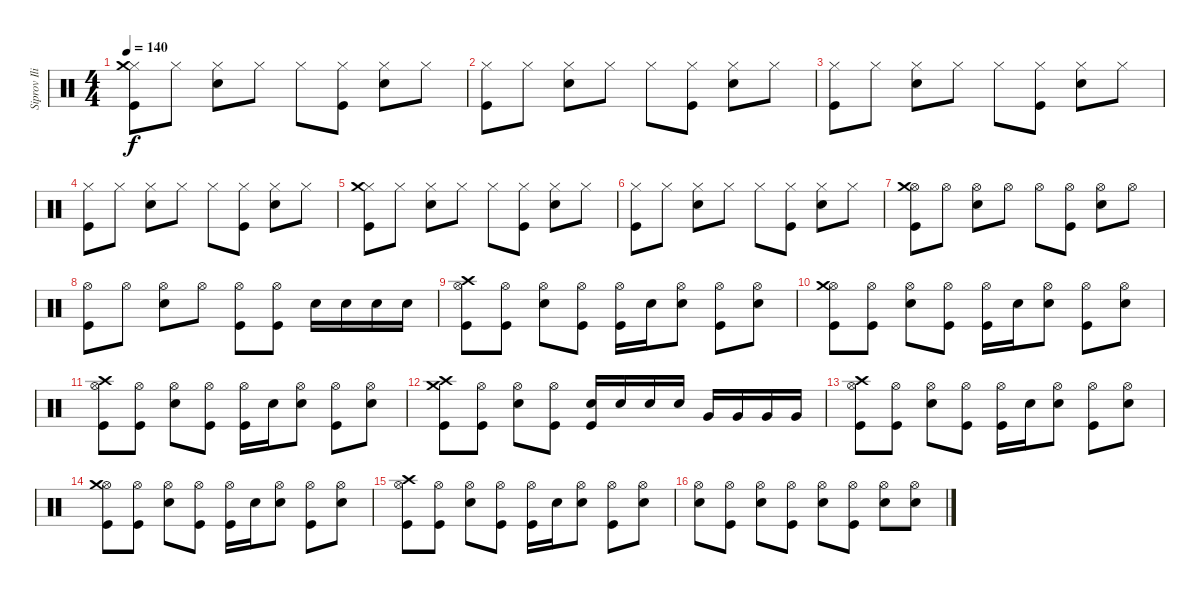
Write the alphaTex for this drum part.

\track ("Siprov Iliya (DRUMS)" "Siprov Ili") {instrument percussion}
\staff {score}
\articulation defaults
\ts (4 4)
\tempo 140
\clef neutral
\ks c
("Hi-Hat (closed)" "Crash medium (hit)" "Kick (hit)").8{dy f} "Hi-Hat (closed)".8 ("Hi-Hat (closed)" "Electric Snare (hit)").8 "Hi-Hat (closed)".8 "Hi-Hat (closed)".8 ("Hi-Hat (closed)" "Kick (hit)").8 ("Hi-Hat (closed)" "Electric Snare (hit)").8 "Hi-Hat (closed)".8 |
("Hi-Hat (closed)" "Kick (hit)").8 "Hi-Hat (closed)".8 ("Hi-Hat (closed)" "Electric Snare (hit)").8 "Hi-Hat (closed)".8 "Hi-Hat (closed)".8 ("Hi-Hat (closed)" "Kick (hit)").8 ("Hi-Hat (closed)" "Electric Snare (hit)").8 "Hi-Hat (closed)".8 |
("Hi-Hat (closed)" "Kick (hit)").8 "Hi-Hat (closed)".8 ("Hi-Hat (closed)" "Electric Snare (hit)").8 "Hi-Hat (closed)".8 "Hi-Hat (closed)".8 ("Hi-Hat (closed)" "Kick (hit)").8 ("Hi-Hat (closed)" "Electric Snare (hit)").8 "Hi-Hat (closed)".8 |
("Hi-Hat (closed)" "Kick (hit)").8 "Hi-Hat (closed)".8 ("Hi-Hat (closed)" "Electric Snare (hit)").8 "Hi-Hat (closed)".8 "Hi-Hat (closed)".8 ("Hi-Hat (closed)" "Kick (hit)").8 ("Hi-Hat (closed)" "Electric Snare (hit)").8 "Hi-Hat (closed)".8 |
("Hi-Hat (closed)" "Crash medium (hit)" "Kick (hit)").8 "Hi-Hat (closed)".8 ("Hi-Hat (closed)" "Electric Snare (hit)").8 "Hi-Hat (closed)".8 "Hi-Hat (closed)".8 ("Hi-Hat (closed)" "Kick (hit)").8 ("Hi-Hat (closed)" "Electric Snare (hit)").8 "Hi-Hat (closed)".8 |
("Hi-Hat (closed)" "Kick (hit)").8 "Hi-Hat (closed)".8 ("Hi-Hat (closed)" "Electric Snare (hit)").8 "Hi-Hat (closed)".8 "Hi-Hat (closed)".8 ("Hi-Hat (closed)" "Kick (hit)").8 ("Hi-Hat (closed)" "Electric Snare (hit)").8 "Hi-Hat (closed)".8 |
("Hi-Hat (open)" "Crash medium (hit)" "Kick (hit)").8 "Hi-Hat (open)".8 ("Hi-Hat (open)" "Electric Snare (hit)").8 "Hi-Hat (open)".8 "Hi-Hat (open)".8 ("Hi-Hat (open)" "Kick (hit)").8 ("Hi-Hat (open)" "Electric Snare (hit)").8 "Hi-Hat (open)".8 |
("Hi-Hat (open)" "Kick (hit)").8 "Hi-Hat (open)".8 ("Hi-Hat (open)" "Electric Snare (hit)").8 "Hi-Hat (open)".8 ("Hi-Hat (open)" "Kick (hit)").8 ("Hi-Hat (open)" "Kick (hit)").8 "Electric Snare (hit)".16 "Electric Snare (hit)".16 "Electric Snare (hit)".16 "Electric Snare (hit)".16 |
("Hi-Hat (open)" "Crash high (hit)" "Kick (hit)").8 ("Hi-Hat (open)" "Kick (hit)").8 ("Hi-Hat (open)" "Electric Snare (hit)").8 ("Hi-Hat (open)" "Kick (hit)").8 ("Hi-Hat (open)" "Kick (hit)").16 "Electric Snare (hit)".16 ("Hi-Hat (open)" "Electric Snare (hit)").8 ("Hi-Hat (open)" "Kick (hit)").8 ("Hi-Hat (open)" "Electric Snare (hit)").8 |
("Hi-Hat (open)" "Crash medium (hit)" "Kick (hit)").8 ("Hi-Hat (open)" "Kick (hit)").8 ("Hi-Hat (open)" "Electric Snare (hit)").8 ("Hi-Hat (open)" "Kick (hit)").8 ("Hi-Hat (open)" "Kick (hit)").16 "Electric Snare (hit)".16 ("Hi-Hat (open)" "Electric Snare (hit)").8 ("Hi-Hat (open)" "Kick (hit)").8 ("Hi-Hat (open)" "Electric Snare (hit)").8 |
("Hi-Hat (open)" "Crash high (hit)" "Kick (hit)").8 ("Hi-Hat (open)" "Kick (hit)").8 ("Hi-Hat (open)" "Electric Snare (hit)").8 ("Hi-Hat (open)" "Kick (hit)").8 ("Hi-Hat (open)" "Kick (hit)").16 "Electric Snare (hit)".16 ("Hi-Hat (open)" "Electric Snare (hit)").8 ("Hi-Hat (open)" "Kick (hit)").8 ("Hi-Hat (open)" "Electric Snare (hit)").8 |
("Crash high (hit)" "Crash medium (hit)" "Kick (hit)").8 ("Hi-Hat (open)" "Kick (hit)").8 ("Hi-Hat (open)" "Electric Snare (hit)").8 ("Hi-Hat (open)" "Kick (hit)").8 ("Electric Snare (hit)" "Kick (hit)").16 "Electric Snare (hit)".16 "Electric Snare (hit)".16 "Electric Snare (hit)".16 "Very Low Tom (hit)".16 "Very Low Tom (hit)".16 "Very Low Tom (hit)".16 "Very Low Tom (hit)".16 |
("Hi-Hat (open)" "Crash high (hit)" "Kick (hit)").8 ("Hi-Hat (open)" "Kick (hit)").8 ("Hi-Hat (open)" "Electric Snare (hit)").8 ("Hi-Hat (open)" "Kick (hit)").8 ("Hi-Hat (open)" "Kick (hit)").16 "Electric Snare (hit)".16 ("Hi-Hat (open)" "Electric Snare (hit)").8 ("Hi-Hat (open)" "Kick (hit)").8 ("Hi-Hat (open)" "Electric Snare (hit)").8 |
("Hi-Hat (open)" "Crash medium (hit)" "Kick (hit)").8 ("Hi-Hat (open)" "Kick (hit)").8 ("Hi-Hat (open)" "Electric Snare (hit)").8 ("Hi-Hat (open)" "Kick (hit)").8 ("Hi-Hat (open)" "Kick (hit)").16 "Electric Snare (hit)".16 ("Hi-Hat (open)" "Electric Snare (hit)").8 ("Hi-Hat (open)" "Kick (hit)").8 ("Hi-Hat (open)" "Electric Snare (hit)").8 |
("Hi-Hat (open)" "Crash high (hit)" "Kick (hit)").8 ("Hi-Hat (open)" "Kick (hit)").8 ("Hi-Hat (open)" "Electric Snare (hit)").8 ("Hi-Hat (open)" "Kick (hit)").8 ("Hi-Hat (open)" "Kick (hit)").16 "Electric Snare (hit)".16 ("Hi-Hat (open)" "Electric Snare (hit)").8 ("Hi-Hat (open)" "Kick (hit)").8 ("Hi-Hat (open)" "Electric Snare (hit)").8 |
("Hi-Hat (open)" "Electric Snare (hit)").8 ("Hi-Hat (open)" "Kick (hit)").8 ("Hi-Hat (open)" "Electric Snare (hit)").8 ("Hi-Hat (open)" "Kick (hit)").8 ("Hi-Hat (open)" "Electric Snare (hit)").8 ("Hi-Hat (open)" "Kick (hit)").8 ("Hi-Hat (open)" "Electric Snare (hit)").8 ("Hi-Hat (open)" "Electric Snare (hit)").8
